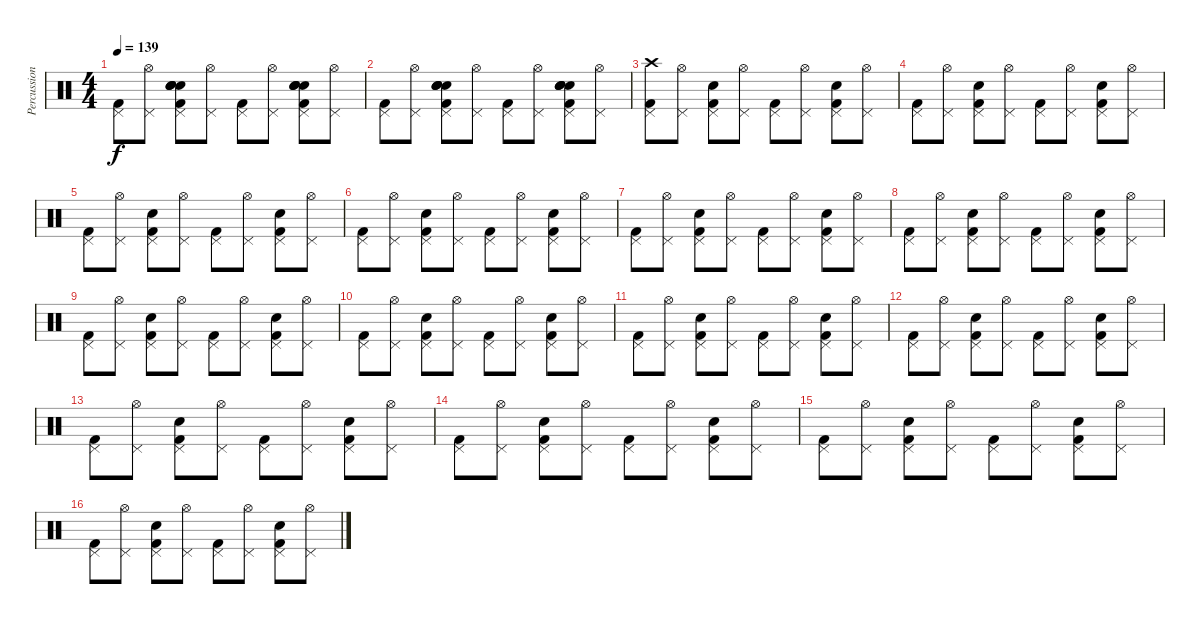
\track ("Percussion" "Percussion") {instrument percussion}
\staff {score}
\articulation defaults
\ts (4 4)
\tempo 139
\clef neutral
\ks c
("Kick (hit) 2" "Pedal Hi-Hat (hit)").8{dy f} ("Pedal Hi-Hat (hit)" "Hi-Hat (open)").8 ("Kick (hit) 2" "Hand Clap (hit)" "Pedal Hi-Hat (hit)" "Hand Clap (hit)" "Hand Clap (hit)" "Hand Clap (hit)").8 ("Pedal Hi-Hat (hit)" "Hi-Hat (open)").8 ("Kick (hit) 2" "Pedal Hi-Hat (hit)").8 ("Pedal Hi-Hat (hit)" "Hi-Hat (open)").8 ("Kick (hit) 2" "Hand Clap (hit)" "Pedal Hi-Hat (hit)" "Hand Clap (hit)" "Hand Clap (hit)" "Hand Clap (hit)").8 ("Pedal Hi-Hat (hit)" "Hi-Hat (open)").8 |
("Kick (hit) 2" "Pedal Hi-Hat (hit)").8 ("Pedal Hi-Hat (hit)" "Hi-Hat (open)").8 ("Kick (hit) 2" "Hand Clap (hit)" "Pedal Hi-Hat (hit)" "Hand Clap (hit)" "Hand Clap (hit)" "Hand Clap (hit)").8 ("Pedal Hi-Hat (hit)" "Hi-Hat (open)").8 ("Kick (hit) 2" "Pedal Hi-Hat (hit)").8 ("Pedal Hi-Hat (hit)" "Hi-Hat (open)").8 ("Kick (hit) 2" "Hand Clap (hit)" "Pedal Hi-Hat (hit)" "Hand Clap (hit)" "Hand Clap (hit)" "Hand Clap (hit)").8 ("Pedal Hi-Hat (hit)" "Hi-Hat (open)").8 |
("Kick (hit) 2" "Pedal Hi-Hat (hit)" "Crash high (hit)").8 ("Pedal Hi-Hat (hit)" "Hi-Hat (open)").8 ("Kick (hit) 2" "Pedal Hi-Hat (hit)" "Electric Snare (hit)").8 ("Pedal Hi-Hat (hit)" "Hi-Hat (open)").8 ("Kick (hit) 2" "Pedal Hi-Hat (hit)").8 ("Pedal Hi-Hat (hit)" "Hi-Hat (open)").8 ("Kick (hit) 2" "Pedal Hi-Hat (hit)" "Electric Snare (hit)").8 ("Pedal Hi-Hat (hit)" "Hi-Hat (open)").8 |
("Kick (hit) 2" "Pedal Hi-Hat (hit)").8 ("Pedal Hi-Hat (hit)" "Hi-Hat (open)").8 ("Kick (hit) 2" "Pedal Hi-Hat (hit)" "Electric Snare (hit)").8 ("Pedal Hi-Hat (hit)" "Hi-Hat (open)").8 ("Kick (hit) 2" "Pedal Hi-Hat (hit)").8 ("Pedal Hi-Hat (hit)" "Hi-Hat (open)").8 ("Kick (hit) 2" "Pedal Hi-Hat (hit)" "Electric Snare (hit)").8 ("Pedal Hi-Hat (hit)" "Hi-Hat (open)").8 |
("Kick (hit) 2" "Pedal Hi-Hat (hit)").8 ("Pedal Hi-Hat (hit)" "Hi-Hat (open)").8 ("Kick (hit) 2" "Pedal Hi-Hat (hit)" "Electric Snare (hit)").8 ("Pedal Hi-Hat (hit)" "Hi-Hat (open)").8 ("Kick (hit) 2" "Pedal Hi-Hat (hit)").8 ("Pedal Hi-Hat (hit)" "Hi-Hat (open)").8 ("Kick (hit) 2" "Pedal Hi-Hat (hit)" "Electric Snare (hit)").8 ("Pedal Hi-Hat (hit)" "Hi-Hat (open)").8 |
("Kick (hit) 2" "Pedal Hi-Hat (hit)").8 ("Pedal Hi-Hat (hit)" "Hi-Hat (open)").8 ("Kick (hit) 2" "Pedal Hi-Hat (hit)" "Electric Snare (hit)").8 ("Pedal Hi-Hat (hit)" "Hi-Hat (open)").8 ("Kick (hit) 2" "Pedal Hi-Hat (hit)").8 ("Pedal Hi-Hat (hit)" "Hi-Hat (open)").8 ("Kick (hit) 2" "Pedal Hi-Hat (hit)" "Electric Snare (hit)").8 ("Pedal Hi-Hat (hit)" "Hi-Hat (open)").8 |
("Kick (hit) 2" "Pedal Hi-Hat (hit)").8 ("Pedal Hi-Hat (hit)" "Hi-Hat (open)").8 ("Kick (hit) 2" "Pedal Hi-Hat (hit)" "Electric Snare (hit)").8 ("Pedal Hi-Hat (hit)" "Hi-Hat (open)").8 ("Kick (hit) 2" "Pedal Hi-Hat (hit)").8 ("Pedal Hi-Hat (hit)" "Hi-Hat (open)").8 ("Kick (hit) 2" "Pedal Hi-Hat (hit)" "Electric Snare (hit)").8 ("Pedal Hi-Hat (hit)" "Hi-Hat (open)").8 |
("Kick (hit) 2" "Pedal Hi-Hat (hit)").8 ("Pedal Hi-Hat (hit)" "Hi-Hat (open)").8 ("Kick (hit) 2" "Pedal Hi-Hat (hit)" "Electric Snare (hit)").8 ("Pedal Hi-Hat (hit)" "Hi-Hat (open)").8 ("Kick (hit) 2" "Pedal Hi-Hat (hit)").8 ("Pedal Hi-Hat (hit)" "Hi-Hat (open)").8 ("Kick (hit) 2" "Pedal Hi-Hat (hit)" "Electric Snare (hit)").8 ("Pedal Hi-Hat (hit)" "Hi-Hat (open)").8 |
("Kick (hit) 2" "Pedal Hi-Hat (hit)").8 ("Pedal Hi-Hat (hit)" "Hi-Hat (open)").8 ("Kick (hit) 2" "Pedal Hi-Hat (hit)" "Electric Snare (hit)").8 ("Pedal Hi-Hat (hit)" "Hi-Hat (open)").8 ("Kick (hit) 2" "Pedal Hi-Hat (hit)").8 ("Pedal Hi-Hat (hit)" "Hi-Hat (open)").8 ("Kick (hit) 2" "Pedal Hi-Hat (hit)" "Electric Snare (hit)").8 ("Pedal Hi-Hat (hit)" "Hi-Hat (open)").8 |
("Kick (hit) 2" "Pedal Hi-Hat (hit)").8 ("Pedal Hi-Hat (hit)" "Hi-Hat (open)").8 ("Kick (hit) 2" "Pedal Hi-Hat (hit)" "Electric Snare (hit)").8 ("Pedal Hi-Hat (hit)" "Hi-Hat (open)").8 ("Kick (hit) 2" "Pedal Hi-Hat (hit)").8 ("Pedal Hi-Hat (hit)" "Hi-Hat (open)").8 ("Kick (hit) 2" "Pedal Hi-Hat (hit)" "Electric Snare (hit)").8 ("Pedal Hi-Hat (hit)" "Hi-Hat (open)").8 |
("Kick (hit) 2" "Pedal Hi-Hat (hit)").8 ("Pedal Hi-Hat (hit)" "Hi-Hat (open)").8 ("Kick (hit) 2" "Pedal Hi-Hat (hit)" "Electric Snare (hit)").8 ("Pedal Hi-Hat (hit)" "Hi-Hat (open)").8 ("Kick (hit) 2" "Pedal Hi-Hat (hit)").8 ("Pedal Hi-Hat (hit)" "Hi-Hat (open)").8 ("Kick (hit) 2" "Pedal Hi-Hat (hit)" "Electric Snare (hit)").8 ("Pedal Hi-Hat (hit)" "Hi-Hat (open)").8 |
("Kick (hit) 2" "Pedal Hi-Hat (hit)").8 ("Pedal Hi-Hat (hit)" "Hi-Hat (open)").8 ("Kick (hit) 2" "Pedal Hi-Hat (hit)" "Electric Snare (hit)").8 ("Pedal Hi-Hat (hit)" "Hi-Hat (open)").8 ("Kick (hit) 2" "Pedal Hi-Hat (hit)").8 ("Pedal Hi-Hat (hit)" "Hi-Hat (open)").8 ("Kick (hit) 2" "Pedal Hi-Hat (hit)" "Electric Snare (hit)").8 ("Pedal Hi-Hat (hit)" "Hi-Hat (open)").8 |
("Kick (hit) 2" "Pedal Hi-Hat (hit)").8 ("Pedal Hi-Hat (hit)" "Hi-Hat (open)").8 ("Kick (hit) 2" "Pedal Hi-Hat (hit)" "Electric Snare (hit)").8 ("Pedal Hi-Hat (hit)" "Hi-Hat (open)").8 ("Kick (hit) 2" "Pedal Hi-Hat (hit)").8 ("Pedal Hi-Hat (hit)" "Hi-Hat (open)").8 ("Kick (hit) 2" "Pedal Hi-Hat (hit)" "Electric Snare (hit)").8 ("Pedal Hi-Hat (hit)" "Hi-Hat (open)").8 |
("Kick (hit) 2" "Pedal Hi-Hat (hit)").8 ("Pedal Hi-Hat (hit)" "Hi-Hat (open)").8 ("Kick (hit) 2" "Pedal Hi-Hat (hit)" "Electric Snare (hit)").8 ("Pedal Hi-Hat (hit)" "Hi-Hat (open)").8 ("Kick (hit) 2" "Pedal Hi-Hat (hit)").8 ("Pedal Hi-Hat (hit)" "Hi-Hat (open)").8 ("Kick (hit) 2" "Pedal Hi-Hat (hit)" "Electric Snare (hit)").8 ("Pedal Hi-Hat (hit)" "Hi-Hat (open)").8 |
("Kick (hit) 2" "Pedal Hi-Hat (hit)").8 ("Pedal Hi-Hat (hit)" "Hi-Hat (open)").8 ("Kick (hit) 2" "Pedal Hi-Hat (hit)" "Electric Snare (hit)").8 ("Pedal Hi-Hat (hit)" "Hi-Hat (open)").8 ("Kick (hit) 2" "Pedal Hi-Hat (hit)").8 ("Pedal Hi-Hat (hit)" "Hi-Hat (open)").8 ("Kick (hit) 2" "Pedal Hi-Hat (hit)" "Electric Snare (hit)").8 ("Pedal Hi-Hat (hit)" "Hi-Hat (open)").8 |
("Kick (hit) 2" "Pedal Hi-Hat (hit)").8 ("Pedal Hi-Hat (hit)" "Hi-Hat (open)").8 ("Kick (hit) 2" "Pedal Hi-Hat (hit)" "Electric Snare (hit)").8 ("Pedal Hi-Hat (hit)" "Hi-Hat (open)").8 ("Kick (hit) 2" "Pedal Hi-Hat (hit)").8 ("Pedal Hi-Hat (hit)" "Hi-Hat (open)").8 ("Kick (hit) 2" "Pedal Hi-Hat (hit)" "Electric Snare (hit)").8 ("Pedal Hi-Hat (hit)" "Hi-Hat (open)").8
